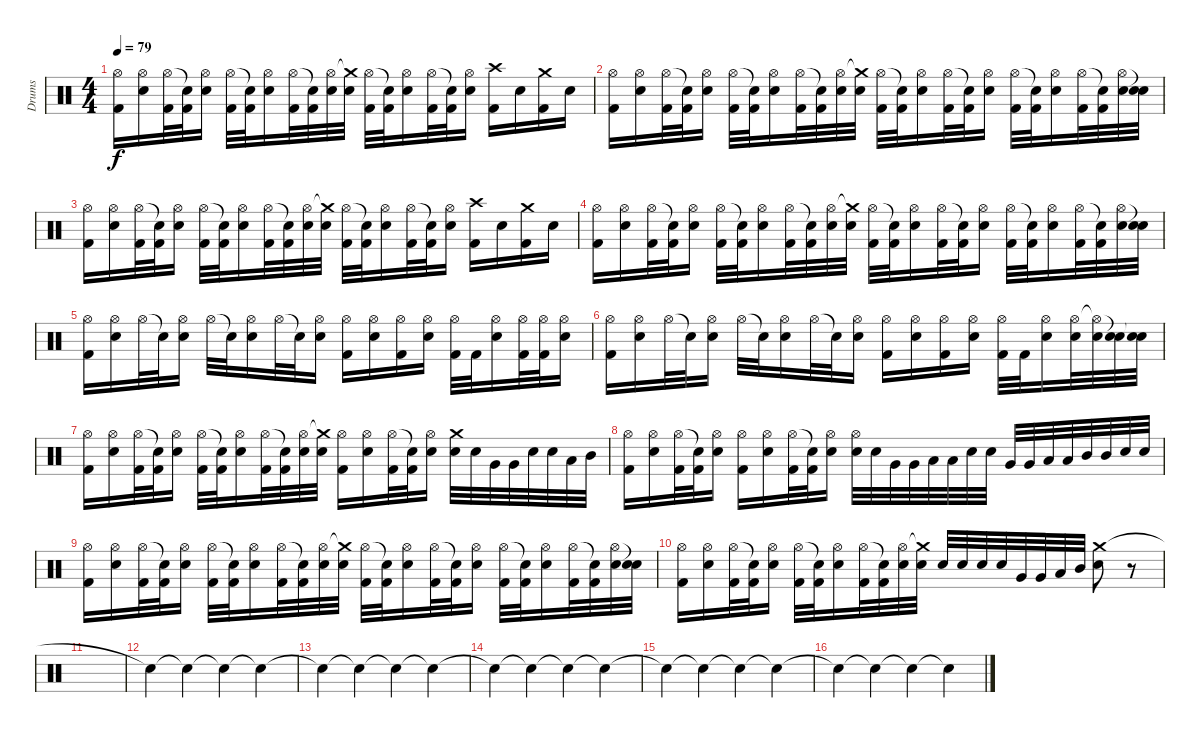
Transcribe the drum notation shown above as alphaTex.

\track ("Drums" "Drums") {instrument percussion}
\staff {score}
\articulation defaults
\ts (4 4)
\tempo 79
\clef neutral
\ks c
("Kick (hit) 2" "Hi-Hat (open)").16{dy f} ("Electric Snare (hit)" "Hi-Hat (open)").16 ("Kick (hit) 2" "Hi-Hat (open)").32 ("Kick (hit) 2" "Snare (hit)"{t}).32 ("Electric Snare (hit)" "Hi-Hat (open)").16 ("Kick (hit) 2" "Hi-Hat (open)").32 ("Kick (hit) 2" "Snare (hit)"{t}).32 ("Electric Snare (hit)" "Hi-Hat (open)").16 ("Kick (hit) 2" "Hi-Hat (open)").32 ("Kick (hit) 2" "Snare (hit)"{t}).32 ("Electric Snare (hit)" "Hi-Hat (open)").32 ("Electric Snare (hit)" "Crash medium (hit)"{t}).32 ("Kick (hit) 2" "Hi-Hat (open)").32 ("Kick (hit) 2" "Snare (hit)"{t}).32 ("Electric Snare (hit)" "Hi-Hat (open)").16 ("Kick (hit) 2" "Hi-Hat (open)").32 ("Kick (hit) 2" "Snare (hit)"{t}).32 ("Electric Snare (hit)" "Hi-Hat (open)").16 ("Kick (hit) 2" "Crash high (hit)").16 "Electric Snare (hit)".16 ("Kick (hit) 2" "Crash medium (hit)").16 "Electric Snare (hit)".16 |
("Kick (hit) 2" "Hi-Hat (open)").16 ("Electric Snare (hit)" "Hi-Hat (open)").16 ("Kick (hit) 2" "Hi-Hat (open)").32 ("Kick (hit) 2" "Snare (hit)"{t}).32 ("Electric Snare (hit)" "Hi-Hat (open)").16 ("Kick (hit) 2" "Hi-Hat (open)").32 ("Kick (hit) 2" "Snare (hit)"{t}).32 ("Electric Snare (hit)" "Hi-Hat (open)").16 ("Kick (hit) 2" "Hi-Hat (open)").32 ("Kick (hit) 2" "Snare (hit)"{t}).32 ("Electric Snare (hit)" "Hi-Hat (open)").32 ("Electric Snare (hit)" "Crash medium (hit)"{t}).32 ("Kick (hit) 2" "Hi-Hat (open)").32 ("Kick (hit) 2" "Snare (hit)"{t}).32 ("Electric Snare (hit)" "Hi-Hat (open)").16 ("Kick (hit) 2" "Hi-Hat (open)").32 ("Kick (hit) 2" "Snare (hit)"{t}).32 ("Electric Snare (hit)" "Hi-Hat (open)").16 ("Kick (hit) 2" "Hi-Hat (open)").32 ("Kick (hit) 2" "Snare (hit)"{t}).32 ("Electric Snare (hit)" "Hi-Hat (open)").16 ("Kick (hit) 2" "Hi-Hat (open)").32 ("Kick (hit) 2" "Snare (hit)"{t}).32 ("Electric Snare (hit)" "Hi-Hat (open)").32 ("Electric Snare (hit)" "Snare (hit)"{t}).32 |
("Kick (hit) 2" "Hi-Hat (open)").16 ("Electric Snare (hit)" "Hi-Hat (open)").16 ("Kick (hit) 2" "Hi-Hat (open)").32 ("Kick (hit) 2" "Snare (hit)"{t}).32 ("Electric Snare (hit)" "Hi-Hat (open)").16 ("Kick (hit) 2" "Hi-Hat (open)").32 ("Kick (hit) 2" "Snare (hit)"{t}).32 ("Electric Snare (hit)" "Hi-Hat (open)").16 ("Kick (hit) 2" "Hi-Hat (open)").32 ("Kick (hit) 2" "Snare (hit)"{t}).32 ("Electric Snare (hit)" "Hi-Hat (open)").32 ("Electric Snare (hit)" "Crash medium (hit)"{t}).32 ("Kick (hit) 2" "Hi-Hat (open)").32 ("Kick (hit) 2" "Snare (hit)"{t}).32 ("Electric Snare (hit)" "Hi-Hat (open)").16 ("Kick (hit) 2" "Hi-Hat (open)").32 ("Kick (hit) 2" "Snare (hit)"{t}).32 ("Electric Snare (hit)" "Hi-Hat (open)").16 ("Kick (hit) 2" "Crash high (hit)").16 "Electric Snare (hit)".16 ("Kick (hit) 2" "Crash medium (hit)").16 "Electric Snare (hit)".16 |
("Kick (hit) 2" "Hi-Hat (open)").16 ("Electric Snare (hit)" "Hi-Hat (open)").16 ("Kick (hit) 2" "Hi-Hat (open)").32 ("Kick (hit) 2" "Snare (hit)"{t}).32 ("Electric Snare (hit)" "Hi-Hat (open)").16 ("Kick (hit) 2" "Hi-Hat (open)").32 ("Kick (hit) 2" "Snare (hit)"{t}).32 ("Electric Snare (hit)" "Hi-Hat (open)").16 ("Kick (hit) 2" "Hi-Hat (open)").32 ("Kick (hit) 2" "Snare (hit)"{t}).32 ("Electric Snare (hit)" "Hi-Hat (open)").32 ("Electric Snare (hit)" "Crash medium (hit)"{t}).32 ("Kick (hit) 2" "Hi-Hat (open)").32 ("Kick (hit) 2" "Snare (hit)"{t}).32 ("Electric Snare (hit)" "Hi-Hat (open)").16 ("Kick (hit) 2" "Hi-Hat (open)").32 ("Kick (hit) 2" "Snare (hit)"{t}).32 ("Electric Snare (hit)" "Hi-Hat (open)").16 ("Kick (hit) 2" "Hi-Hat (open)").32 ("Kick (hit) 2" "Snare (hit)"{t}).32 ("Electric Snare (hit)" "Hi-Hat (open)").16 ("Kick (hit) 2" "Hi-Hat (open)").32 ("Kick (hit) 2" "Snare (hit)"{t}).32 ("Electric Snare (hit)" "Hi-Hat (open)").32 ("Electric Snare (hit)" "Snare (hit)"{t}).32 |
("Kick (hit) 2" "Hi-Hat (open)").16 ("Electric Snare (hit)" "Hi-Hat (open)").16 "Hi-Hat (open)".32 "Snare (hit)"{t}.32 ("Electric Snare (hit)" "Hi-Hat (open)").16 "Hi-Hat (open)".32 "Snare (hit)"{t}.32 ("Electric Snare (hit)" "Hi-Hat (open)").16 "Hi-Hat (open)".32 "Snare (hit)"{t}.32 ("Electric Snare (hit)" "Hi-Hat (open)").16 ("Kick (hit) 2" "Hi-Hat (open)").16 ("Electric Snare (hit)" "Hi-Hat (open)").16 ("Kick (hit) 2" "Hi-Hat (open)").16 ("Electric Snare (hit)" "Hi-Hat (open)").16 ("Kick (hit) 2" "Hi-Hat (open)").32 "Kick (hit) 2".32 ("Electric Snare (hit)" "Hi-Hat (open)").16 ("Kick (hit) 2" "Hi-Hat (open)").32 ("Kick (hit) 2" "Hi-Hat (open)").32 ("Electric Snare (hit)" "Hi-Hat (open)").16 |
("Kick (hit) 2" "Hi-Hat (open)").16 ("Electric Snare (hit)" "Hi-Hat (open)").16 "Hi-Hat (open)".32 "Snare (hit)"{t}.32 ("Electric Snare (hit)" "Hi-Hat (open)").16 "Hi-Hat (open)".32 "Snare (hit)"{t}.32 ("Electric Snare (hit)" "Hi-Hat (open)").16 "Hi-Hat (open)".32 "Snare (hit)"{t}.32 ("Electric Snare (hit)" "Hi-Hat (open)").16 ("Kick (hit) 2" "Hi-Hat (open)").16 ("Electric Snare (hit)" "Hi-Hat (open)").16 ("Kick (hit) 2" "Hi-Hat (open)").16 ("Electric Snare (hit)" "Hi-Hat (open)").16 ("Kick (hit) 2" "Hi-Hat (open)").32 "Kick (hit) 2".32 ("Electric Snare (hit)" "Hi-Hat (open)").16 ("Electric Snare (hit)" "Hi-Hat (open)").32 ("Electric Snare (hit)" "Hi-Hat (open)"{t}).32 ("Electric Snare (hit)" "Snare (hit)"{t}).32 ("Electric Snare (hit)" "Snare (hit)"{t}).32 |
("Kick (hit) 2" "Hi-Hat (open)").16 ("Electric Snare (hit)" "Hi-Hat (open)").16 ("Kick (hit) 2" "Hi-Hat (open)").32 ("Kick (hit) 2" "Snare (hit)"{t}).32 ("Electric Snare (hit)" "Hi-Hat (open)").16 ("Kick (hit) 2" "Hi-Hat (open)").32 ("Kick (hit) 2" "Snare (hit)"{t}).32 ("Electric Snare (hit)" "Hi-Hat (open)").16 ("Kick (hit) 2" "Hi-Hat (open)").32 ("Kick (hit) 2" "Snare (hit)"{t}).32 ("Electric Snare (hit)" "Hi-Hat (open)").32 ("Electric Snare (hit)" "Crash medium (hit)"{t}).32 ("Kick (hit) 2" "Hi-Hat (open)").16 ("Electric Snare (hit)" "Hi-Hat (open)").16 ("Kick (hit) 2" "Hi-Hat (open)").32 ("Kick (hit) 2" "Snare (hit)"{t}).32 ("Electric Snare (hit)" "Hi-Hat (open)").16 ("Electric Snare (hit)" "Crash medium (hit)").32 "Electric Snare (hit)".32 "Very Low Tom (hit)".32 "Very Low Tom (hit)".32 "Electric Snare (hit)".32 "Electric Snare (hit)".32 "Low Tom (hit)".32 "Mid Tom (hit)".32 |
("Kick (hit) 2" "Hi-Hat (open)").16 ("Electric Snare (hit)" "Hi-Hat (open)").16 ("Kick (hit) 2" "Hi-Hat (open)").32 ("Kick (hit) 2" "Snare (hit)"{t}).32 ("Electric Snare (hit)" "Hi-Hat (open)").16 ("Kick (hit) 2" "Hi-Hat (open)").16 ("Electric Snare (hit)" "Hi-Hat (open)").16 ("Kick (hit) 2" "Hi-Hat (open)").32 ("Kick (hit) 2" "Snare (hit)"{t}).32 ("Electric Snare (hit)" "Hi-Hat (open)").16 ("Electric Snare (hit)" "Hi-Hat (open)").32 "Electric Snare (hit)".32 "Very Low Tom (hit)".32 "Very Low Tom (hit)".32 "Low Tom (hit)".32 "Low Tom (hit)".32 "Electric Snare (hit)".32 "Electric Snare (hit)".32 "Very Low Tom (hit)".32 "Very Low Tom (hit)".32 "Low Tom (hit)".32 "Low Tom (hit)".32 "Mid Tom (hit)".32 "Mid Tom (hit)".32 "Electric Snare (hit)".32 "Electric Snare (hit)".32 |
("Kick (hit) 2" "Hi-Hat (open)").16 ("Electric Snare (hit)" "Hi-Hat (open)").16 ("Kick (hit) 2" "Hi-Hat (open)").32 ("Kick (hit) 2" "Snare (hit)"{t}).32 ("Electric Snare (hit)" "Hi-Hat (open)").16 ("Kick (hit) 2" "Hi-Hat (open)").32 ("Kick (hit) 2" "Snare (hit)"{t}).32 ("Electric Snare (hit)" "Hi-Hat (open)").16 ("Kick (hit) 2" "Hi-Hat (open)").32 ("Kick (hit) 2" "Snare (hit)"{t}).32 ("Electric Snare (hit)" "Hi-Hat (open)").32 ("Electric Snare (hit)" "Crash medium (hit)"{t}).32 ("Kick (hit) 2" "Hi-Hat (open)").32 ("Kick (hit) 2" "Snare (hit)"{t}).32 ("Electric Snare (hit)" "Hi-Hat (open)").16 ("Kick (hit) 2" "Hi-Hat (open)").32 ("Kick (hit) 2" "Snare (hit)"{t}).32 ("Electric Snare (hit)" "Hi-Hat (open)").16 ("Kick (hit) 2" "Hi-Hat (open)").32 ("Kick (hit) 2" "Snare (hit)"{t}).32 ("Electric Snare (hit)" "Hi-Hat (open)").16 ("Kick (hit) 2" "Hi-Hat (open)").32 ("Kick (hit) 2" "Snare (hit)"{t}).32 ("Electric Snare (hit)" "Hi-Hat (open)").32 ("Electric Snare (hit)" "Snare (hit)"{t}).32 |
("Kick (hit) 2" "Hi-Hat (open)").16 ("Electric Snare (hit)" "Hi-Hat (open)").16 ("Kick (hit) 2" "Hi-Hat (open)").32 ("Kick (hit) 2" "Snare (hit)"{t}).32 ("Electric Snare (hit)" "Hi-Hat (open)").16 ("Kick (hit) 2" "Hi-Hat (open)").32 ("Kick (hit) 2" "Snare (hit)"{t}).32 ("Electric Snare (hit)" "Hi-Hat (open)").16 ("Kick (hit) 2" "Hi-Hat (open)").32 ("Kick (hit) 2" "Snare (hit)"{t}).32 ("Electric Snare (hit)" "Hi-Hat (open)").32 ("Electric Snare (hit)" "Crash medium (hit)"{t}).32 "Electric Snare (hit)".32 "Electric Snare (hit)".32 "Electric Snare (hit)".32 "Electric Snare (hit)".32 "Very Low Tom (hit)".32 "Very Low Tom (hit)".32 "Low Tom (hit)".32 "Mid Tom (hit)".32 ("Crash medium (hit)" "Electric Snare (hit)").8 r.8 |
|
"Snare (hit)"{t}.4 "Snare (hit)"{t}.4 "Snare (hit)"{t}.4 "Snare (hit)"{t}.4 |
"Snare (hit)"{t}.4 "Snare (hit)"{t}.4 "Snare (hit)"{t}.4 "Snare (hit)"{t}.4 |
"Snare (hit)"{t}.4 "Snare (hit)"{t}.4 "Snare (hit)"{t}.4 "Snare (hit)"{t}.4 |
"Snare (hit)"{t}.4 "Snare (hit)"{t}.4 "Snare (hit)"{t}.4 "Snare (hit)"{t}.4 |
"Snare (hit)"{t}.4 "Snare (hit)"{t}.4 "Snare (hit)"{t}.4 "Snare (hit)"{t}.4
